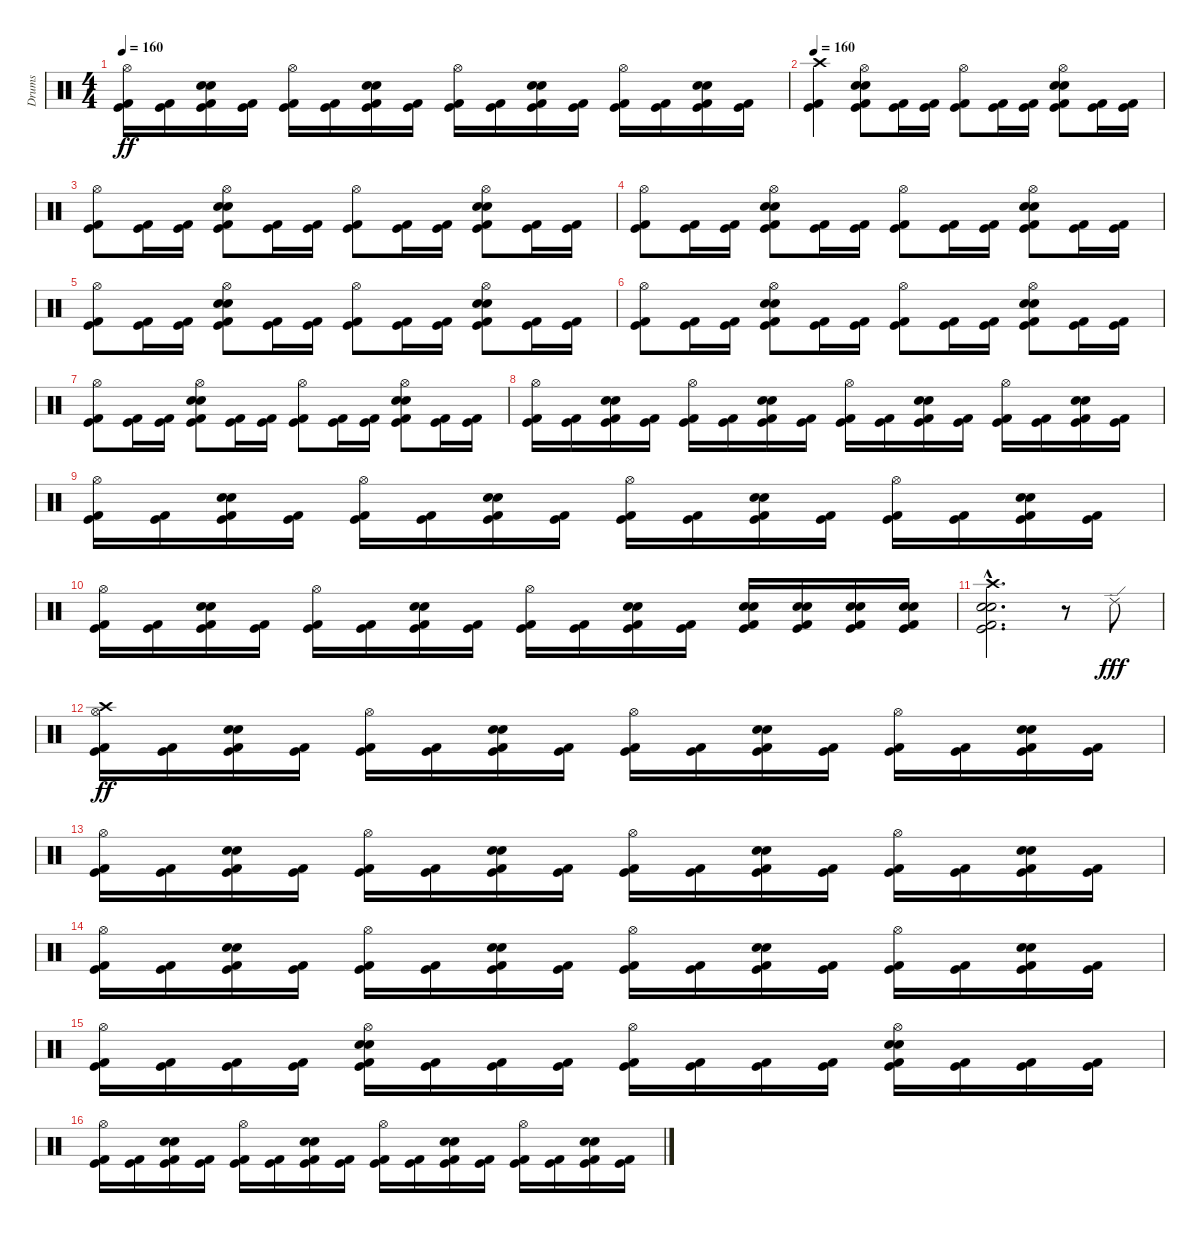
\track ("Drums" "Drums") {instrument percussion}
\staff {score}
\articulation defaults
\ts (4 4)
\tempo 160
\clef neutral
\ks c
("Hi-Hat (open)" "Kick (hit) 2" "Kick (hit)").16{dy ff} ("Kick (hit) 2" "Kick (hit)").16 ("Electric Snare (hit)" "Snare (hit) 2" "Kick (hit) 2" "Kick (hit)").16 ("Kick (hit) 2" "Kick (hit)").16 ("Hi-Hat (open)" "Kick (hit) 2" "Kick (hit)").16 ("Kick (hit) 2" "Kick (hit)").16 ("Electric Snare (hit)" "Snare (hit) 2" "Kick (hit) 2" "Kick (hit)").16 ("Kick (hit) 2" "Kick (hit)").16 ("Hi-Hat (open)" "Kick (hit) 2" "Kick (hit)").16 ("Kick (hit) 2" "Kick (hit)").16 ("Electric Snare (hit)" "Snare (hit) 2" "Kick (hit) 2" "Kick (hit)").16 ("Kick (hit) 2" "Kick (hit)").16 ("Hi-Hat (open)" "Kick (hit) 2" "Kick (hit)").16 ("Kick (hit) 2" "Kick (hit)").16 ("Electric Snare (hit)" "Snare (hit) 2" "Kick (hit) 2" "Kick (hit)").16 ("Kick (hit) 2" "Kick (hit)").16 |
\tempo 160
("Crash high (hit)" "Kick (hit) 2" "Kick (hit)").4 ("Hi-Hat (open)" "Electric Snare (hit)" "Snare (hit) 2" "Kick (hit) 2" "Kick (hit)").8 ("Kick (hit) 2" "Kick (hit)").16 ("Kick (hit) 2" "Kick (hit)").16 ("Hi-Hat (open)" "Kick (hit) 2" "Kick (hit)").8 ("Kick (hit) 2" "Kick (hit)").16 ("Kick (hit) 2" "Kick (hit)").16 ("Hi-Hat (open)" "Electric Snare (hit)" "Snare (hit) 2" "Kick (hit) 2" "Kick (hit)").8 ("Kick (hit) 2" "Kick (hit)").16 ("Kick (hit) 2" "Kick (hit)").16 |
("Hi-Hat (open)" "Kick (hit) 2" "Kick (hit)").8 ("Kick (hit) 2" "Kick (hit)").16 ("Kick (hit) 2" "Kick (hit)").16 ("Hi-Hat (open)" "Electric Snare (hit)" "Snare (hit) 2" "Kick (hit) 2" "Kick (hit)").8 ("Kick (hit) 2" "Kick (hit)").16 ("Kick (hit) 2" "Kick (hit)").16 ("Hi-Hat (open)" "Kick (hit) 2" "Kick (hit)").8 ("Kick (hit) 2" "Kick (hit)").16 ("Kick (hit) 2" "Kick (hit)").16 ("Hi-Hat (open)" "Electric Snare (hit)" "Snare (hit) 2" "Kick (hit) 2" "Kick (hit)").8 ("Kick (hit) 2" "Kick (hit)").16 ("Kick (hit) 2" "Kick (hit)").16 |
("Hi-Hat (open)" "Kick (hit) 2" "Kick (hit)").8 ("Kick (hit) 2" "Kick (hit)").16 ("Kick (hit) 2" "Kick (hit)").16 ("Hi-Hat (open)" "Electric Snare (hit)" "Snare (hit) 2" "Kick (hit) 2" "Kick (hit)").8 ("Kick (hit) 2" "Kick (hit)").16 ("Kick (hit) 2" "Kick (hit)").16 ("Hi-Hat (open)" "Kick (hit) 2" "Kick (hit)").8 ("Kick (hit) 2" "Kick (hit)").16 ("Kick (hit) 2" "Kick (hit)").16 ("Hi-Hat (open)" "Electric Snare (hit)" "Snare (hit) 2" "Kick (hit) 2" "Kick (hit)").8 ("Kick (hit) 2" "Kick (hit)").16 ("Kick (hit) 2" "Kick (hit)").16 |
("Hi-Hat (open)" "Kick (hit) 2" "Kick (hit)").8 ("Kick (hit) 2" "Kick (hit)").16 ("Kick (hit) 2" "Kick (hit)").16 ("Hi-Hat (open)" "Electric Snare (hit)" "Snare (hit) 2" "Kick (hit) 2" "Kick (hit)").8 ("Kick (hit) 2" "Kick (hit)").16 ("Kick (hit) 2" "Kick (hit)").16 ("Hi-Hat (open)" "Kick (hit) 2" "Kick (hit)").8 ("Kick (hit) 2" "Kick (hit)").16 ("Kick (hit) 2" "Kick (hit)").16 ("Hi-Hat (open)" "Electric Snare (hit)" "Snare (hit) 2" "Kick (hit) 2" "Kick (hit)").8 ("Kick (hit) 2" "Kick (hit)").16 ("Kick (hit) 2" "Kick (hit)").16 |
("Hi-Hat (open)" "Kick (hit) 2" "Kick (hit)").8 ("Kick (hit) 2" "Kick (hit)").16 ("Kick (hit) 2" "Kick (hit)").16 ("Hi-Hat (open)" "Electric Snare (hit)" "Snare (hit) 2" "Kick (hit) 2" "Kick (hit)").8 ("Kick (hit) 2" "Kick (hit)").16 ("Kick (hit) 2" "Kick (hit)").16 ("Hi-Hat (open)" "Kick (hit) 2" "Kick (hit)").8 ("Kick (hit) 2" "Kick (hit)").16 ("Kick (hit) 2" "Kick (hit)").16 ("Hi-Hat (open)" "Electric Snare (hit)" "Snare (hit) 2" "Kick (hit) 2" "Kick (hit)").8 ("Kick (hit) 2" "Kick (hit)").16 ("Kick (hit) 2" "Kick (hit)").16 |
("Hi-Hat (open)" "Kick (hit) 2" "Kick (hit)").8 ("Kick (hit) 2" "Kick (hit)").16 ("Kick (hit) 2" "Kick (hit)").16 ("Hi-Hat (open)" "Electric Snare (hit)" "Snare (hit) 2" "Kick (hit) 2" "Kick (hit)").8 ("Kick (hit) 2" "Kick (hit)").16 ("Kick (hit) 2" "Kick (hit)").16 ("Hi-Hat (open)" "Kick (hit) 2" "Kick (hit)").8 ("Kick (hit) 2" "Kick (hit)").16 ("Kick (hit) 2" "Kick (hit)").16 ("Hi-Hat (open)" "Electric Snare (hit)" "Snare (hit) 2" "Kick (hit) 2" "Kick (hit)").8 ("Kick (hit) 2" "Kick (hit)").16 ("Kick (hit) 2" "Kick (hit)").16 |
("Hi-Hat (open)" "Kick (hit) 2" "Kick (hit)").16 ("Kick (hit) 2" "Kick (hit)").16 ("Electric Snare (hit)" "Snare (hit) 2" "Kick (hit) 2" "Kick (hit)").16 ("Kick (hit) 2" "Kick (hit)").16 ("Hi-Hat (open)" "Kick (hit) 2" "Kick (hit)").16 ("Kick (hit) 2" "Kick (hit)").16 ("Electric Snare (hit)" "Snare (hit) 2" "Kick (hit) 2" "Kick (hit)").16 ("Kick (hit) 2" "Kick (hit)").16 ("Hi-Hat (open)" "Kick (hit) 2" "Kick (hit)").16 ("Kick (hit) 2" "Kick (hit)").16 ("Electric Snare (hit)" "Snare (hit) 2" "Kick (hit) 2" "Kick (hit)").16 ("Kick (hit) 2" "Kick (hit)").16 ("Hi-Hat (open)" "Kick (hit) 2" "Kick (hit)").16 ("Kick (hit) 2" "Kick (hit)").16 ("Electric Snare (hit)" "Snare (hit) 2" "Kick (hit) 2" "Kick (hit)").16 ("Kick (hit) 2" "Kick (hit)").16 |
("Hi-Hat (open)" "Kick (hit) 2" "Kick (hit)").16 ("Kick (hit) 2" "Kick (hit)").16 ("Electric Snare (hit)" "Snare (hit) 2" "Kick (hit) 2" "Kick (hit)").16 ("Kick (hit) 2" "Kick (hit)").16 ("Hi-Hat (open)" "Kick (hit) 2" "Kick (hit)").16 ("Kick (hit) 2" "Kick (hit)").16 ("Electric Snare (hit)" "Snare (hit) 2" "Kick (hit) 2" "Kick (hit)").16 ("Kick (hit) 2" "Kick (hit)").16 ("Hi-Hat (open)" "Kick (hit) 2" "Kick (hit)").16 ("Kick (hit) 2" "Kick (hit)").16 ("Electric Snare (hit)" "Snare (hit) 2" "Kick (hit) 2" "Kick (hit)").16 ("Kick (hit) 2" "Kick (hit)").16 ("Hi-Hat (open)" "Kick (hit) 2" "Kick (hit)").16 ("Kick (hit) 2" "Kick (hit)").16 ("Electric Snare (hit)" "Snare (hit) 2" "Kick (hit) 2" "Kick (hit)").16 ("Kick (hit) 2" "Kick (hit)").16 |
("Hi-Hat (open)" "Kick (hit) 2" "Kick (hit)").16 ("Kick (hit) 2" "Kick (hit)").16 ("Electric Snare (hit)" "Snare (hit) 2" "Kick (hit) 2" "Kick (hit)").16 ("Kick (hit) 2" "Kick (hit)").16 ("Hi-Hat (open)" "Kick (hit) 2" "Kick (hit)").16 ("Kick (hit) 2" "Kick (hit)").16 ("Electric Snare (hit)" "Snare (hit) 2" "Kick (hit) 2" "Kick (hit)").16 ("Kick (hit) 2" "Kick (hit)").16 ("Hi-Hat (open)" "Kick (hit) 2" "Kick (hit)").16 ("Kick (hit) 2" "Kick (hit)").16 ("Electric Snare (hit)" "Snare (hit) 2" "Kick (hit) 2" "Kick (hit)").16 ("Kick (hit) 2" "Kick (hit)").16 ("Electric Snare (hit)" "Snare (hit) 2" "Kick (hit) 2" "Kick (hit)").16 ("Electric Snare (hit)" "Snare (hit) 2" "Kick (hit) 2" "Kick (hit)").16 ("Electric Snare (hit)" "Snare (hit) 2" "Kick (hit) 2" "Kick (hit)").16 ("Electric Snare (hit)" "Snare (hit) 2" "Kick (hit) 2" "Kick (hit)").16 |
("Crash high (hit)"{hac} "Snare (hit) 2"{hac} "Electric Snare (hit)"{hac} "Kick (hit) 2"{hac} "Kick (hit)"{hac}).2{d} r.8 "Ride (edge) 2".8{dy fff} |
("Hi-Hat (open)" "Crash high (hit)" "Kick (hit) 2" "Kick (hit)").16{dy ff} ("Kick (hit) 2" "Kick (hit)").16 ("Electric Snare (hit)" "Snare (hit) 2" "Kick (hit) 2" "Kick (hit)").16 ("Kick (hit) 2" "Kick (hit)").16 ("Hi-Hat (open)" "Kick (hit) 2" "Kick (hit)").16 ("Kick (hit) 2" "Kick (hit)").16 ("Electric Snare (hit)" "Snare (hit) 2" "Kick (hit) 2" "Kick (hit)").16 ("Kick (hit) 2" "Kick (hit)").16 ("Hi-Hat (open)" "Kick (hit) 2" "Kick (hit)").16 ("Kick (hit) 2" "Kick (hit)").16 ("Electric Snare (hit)" "Snare (hit) 2" "Kick (hit) 2" "Kick (hit)").16 ("Kick (hit) 2" "Kick (hit)").16 ("Hi-Hat (open)" "Kick (hit) 2" "Kick (hit)").16 ("Kick (hit) 2" "Kick (hit)").16 ("Electric Snare (hit)" "Snare (hit) 2" "Kick (hit) 2" "Kick (hit)").16 ("Kick (hit) 2" "Kick (hit)").16 |
("Hi-Hat (open)" "Kick (hit) 2" "Kick (hit)").16 ("Kick (hit) 2" "Kick (hit)").16 ("Electric Snare (hit)" "Snare (hit) 2" "Kick (hit) 2" "Kick (hit)").16 ("Kick (hit) 2" "Kick (hit)").16 ("Hi-Hat (open)" "Kick (hit) 2" "Kick (hit)").16 ("Kick (hit) 2" "Kick (hit)").16 ("Electric Snare (hit)" "Snare (hit) 2" "Kick (hit) 2" "Kick (hit)").16 ("Kick (hit) 2" "Kick (hit)").16 ("Hi-Hat (open)" "Kick (hit) 2" "Kick (hit)").16 ("Kick (hit) 2" "Kick (hit)").16 ("Electric Snare (hit)" "Snare (hit) 2" "Kick (hit) 2" "Kick (hit)").16 ("Kick (hit) 2" "Kick (hit)").16 ("Hi-Hat (open)" "Kick (hit) 2" "Kick (hit)").16 ("Kick (hit) 2" "Kick (hit)").16 ("Electric Snare (hit)" "Snare (hit) 2" "Kick (hit) 2" "Kick (hit)").16 ("Kick (hit) 2" "Kick (hit)").16 |
("Hi-Hat (open)" "Kick (hit) 2" "Kick (hit)").16 ("Kick (hit) 2" "Kick (hit)").16 ("Electric Snare (hit)" "Snare (hit) 2" "Kick (hit) 2" "Kick (hit)").16 ("Kick (hit) 2" "Kick (hit)").16 ("Hi-Hat (open)" "Kick (hit) 2" "Kick (hit)").16 ("Kick (hit) 2" "Kick (hit)").16 ("Electric Snare (hit)" "Snare (hit) 2" "Kick (hit) 2" "Kick (hit)").16 ("Kick (hit) 2" "Kick (hit)").16 ("Hi-Hat (open)" "Kick (hit) 2" "Kick (hit)").16 ("Kick (hit) 2" "Kick (hit)").16 ("Electric Snare (hit)" "Snare (hit) 2" "Kick (hit) 2" "Kick (hit)").16 ("Kick (hit) 2" "Kick (hit)").16 ("Hi-Hat (open)" "Kick (hit) 2" "Kick (hit)").16 ("Kick (hit) 2" "Kick (hit)").16 ("Electric Snare (hit)" "Snare (hit) 2" "Kick (hit) 2" "Kick (hit)").16 ("Kick (hit) 2" "Kick (hit)").16 |
("Hi-Hat (open)" "Kick (hit) 2" "Kick (hit)").16 ("Kick (hit) 2" "Kick (hit)").16 ("Kick (hit) 2" "Kick (hit)").16 ("Kick (hit) 2" "Kick (hit)").16 ("Hi-Hat (open)" "Snare (hit) 2" "Electric Snare (hit)" "Kick (hit) 2" "Kick (hit)").16 ("Kick (hit) 2" "Kick (hit)").16 ("Kick (hit) 2" "Kick (hit)").16 ("Kick (hit) 2" "Kick (hit)").16 ("Hi-Hat (open)" "Kick (hit) 2" "Kick (hit)").16 ("Kick (hit) 2" "Kick (hit)").16 ("Kick (hit) 2" "Kick (hit)").16 ("Kick (hit) 2" "Kick (hit)").16 ("Hi-Hat (open)" "Snare (hit) 2" "Electric Snare (hit)" "Kick (hit) 2" "Kick (hit)").16 ("Kick (hit) 2" "Kick (hit)").16 ("Kick (hit) 2" "Kick (hit)").16 ("Kick (hit) 2" "Kick (hit)").16 |
("Hi-Hat (open)" "Kick (hit) 2" "Kick (hit)").16 ("Kick (hit) 2" "Kick (hit)").16 ("Electric Snare (hit)" "Snare (hit) 2" "Kick (hit) 2" "Kick (hit)").16 ("Kick (hit) 2" "Kick (hit)").16 ("Hi-Hat (open)" "Kick (hit) 2" "Kick (hit)").16 ("Kick (hit) 2" "Kick (hit)").16 ("Electric Snare (hit)" "Snare (hit) 2" "Kick (hit) 2" "Kick (hit)").16 ("Kick (hit) 2" "Kick (hit)").16 ("Hi-Hat (open)" "Kick (hit) 2" "Kick (hit)").16 ("Kick (hit) 2" "Kick (hit)").16 ("Electric Snare (hit)" "Snare (hit) 2" "Kick (hit) 2" "Kick (hit)").16 ("Kick (hit) 2" "Kick (hit)").16 ("Hi-Hat (open)" "Kick (hit) 2" "Kick (hit)").16 ("Kick (hit) 2" "Kick (hit)").16 ("Electric Snare (hit)" "Snare (hit) 2" "Kick (hit) 2" "Kick (hit)").16 ("Kick (hit) 2" "Kick (hit)").16
